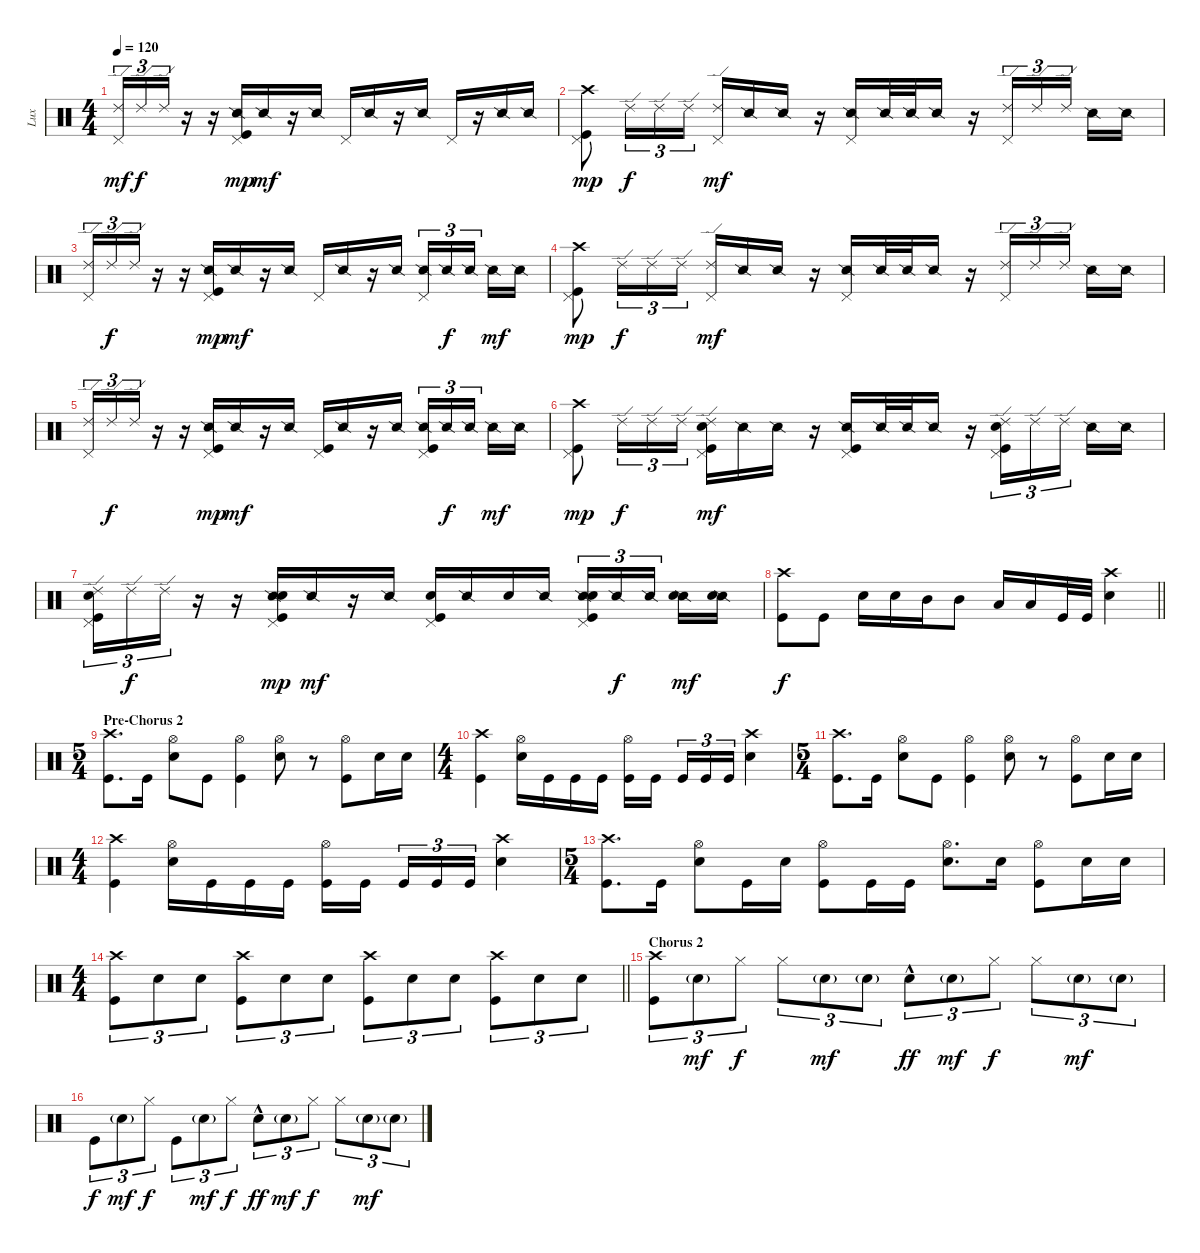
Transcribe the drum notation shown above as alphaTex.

\track ("Lux" "Lux") {instrument percussion bank 32}
\staff {score}
\articulation defaults
\ts (4 4)
\tempo 120
\clef neutral
\ks c
("Ride (edge) 2" "Pedal Hi-Hat (hit)").16{tu (3 2) dy mf} "Ride (edge) 2".16{tu (3 2) dy f} "Ride (edge) 2".16{tu (3 2)} r.16 r.16 ("Snare (side stick) 2" "Pedal Hi-Hat (hit)" "Kick (hit)").16{dy mp} "Snare (side stick) 2".16{dy mf} r.16 "Snare (side stick) 2".16 "Pedal Hi-Hat (hit)".16 "Snare (side stick) 2".16 r.16 "Snare (side stick) 2".16 "Pedal Hi-Hat (hit)".16 r.16 "Snare (side stick) 2".16 "Snare (side stick) 2".16 |
("Crash high (hit)" "Pedal Hi-Hat (hit)" "Kick (hit)").8{dy mp} "Ride (edge) 2".16{tu (3 2) dy f} "Ride (edge) 2".16{tu (3 2)} "Ride (edge) 2".16{tu (3 2)} ("Ride (edge) 2" "Pedal Hi-Hat (hit)").16{dy mf} "Snare (side stick) 2".16 "Snare (side stick) 2".16 r.16 ("Snare (side stick) 2" "Pedal Hi-Hat (hit)").16 "Snare (side stick) 2".32 "Snare (side stick) 2".32 "Snare (side stick) 2".16 r.16 ("Ride (edge) 2" "Pedal Hi-Hat (hit)").16{tu (3 2)} "Ride (edge) 2".16{tu (3 2)} "Ride (edge) 2".16{tu (3 2) beam splitsecondary} "Snare (side stick) 2".16 "Snare (side stick) 2".16 |
("Ride (edge) 2" "Pedal Hi-Hat (hit)").16{tu (3 2)} "Ride (edge) 2".16{tu (3 2) dy f} "Ride (edge) 2".16{tu (3 2)} r.16 r.16 ("Snare (side stick) 2" "Pedal Hi-Hat (hit)" "Kick (hit)").16{dy mp} "Snare (side stick) 2".16{dy mf} r.16 "Snare (side stick) 2".16 "Pedal Hi-Hat (hit)".16 "Snare (side stick) 2".16 r.16 "Snare (side stick) 2".16 ("Snare (side stick) 2" "Pedal Hi-Hat (hit)").16{tu (3 2)} "Snare (side stick) 2".16{tu (3 2) dy f} "Snare (side stick) 2".16{tu (3 2) beam splitsecondary} "Snare (side stick) 2".16{dy mf} "Snare (side stick) 2".16 |
("Crash high (hit)" "Pedal Hi-Hat (hit)" "Kick (hit)").8{dy mp} "Ride (edge) 2".16{tu (3 2) dy f} "Ride (edge) 2".16{tu (3 2)} "Ride (edge) 2".16{tu (3 2)} ("Ride (edge) 2" "Pedal Hi-Hat (hit)").16{dy mf} "Snare (side stick) 2".16 "Snare (side stick) 2".16 r.16 ("Snare (side stick) 2" "Pedal Hi-Hat (hit)").16 "Snare (side stick) 2".32 "Snare (side stick) 2".32 "Snare (side stick) 2".16 r.16 ("Ride (edge) 2" "Pedal Hi-Hat (hit)").16{tu (3 2)} "Ride (edge) 2".16{tu (3 2)} "Ride (edge) 2".16{tu (3 2) beam splitsecondary} "Snare (side stick) 2".16 "Snare (side stick) 2".16 |
("Ride (edge) 2" "Pedal Hi-Hat (hit)").16{tu (3 2)} "Ride (edge) 2".16{tu (3 2) dy f} "Ride (edge) 2".16{tu (3 2)} r.16 r.16 ("Snare (side stick) 2" "Pedal Hi-Hat (hit)" "Kick (hit)").16{dy mp} "Snare (side stick) 2".16{dy mf} r.16 "Snare (side stick) 2".16 ("Kick (hit)" "Pedal Hi-Hat (hit)").16 "Snare (side stick) 2".16 r.16 "Snare (side stick) 2".16 ("Snare (side stick) 2" "Kick (hit)" "Pedal Hi-Hat (hit)").16{tu (3 2)} "Snare (side stick) 2".16{tu (3 2) dy f} "Snare (side stick) 2".16{tu (3 2) beam splitsecondary} "Snare (side stick) 2".16{dy mf} "Snare (side stick) 2".16 |
("Crash high (hit)" "Pedal Hi-Hat (hit)" "Kick (hit)").8{dy mp} "Ride (edge) 2".16{tu (3 2) dy f} "Ride (edge) 2".16{tu (3 2)} "Ride (edge) 2".16{tu (3 2)} ("Ride (edge) 2" "Snare (hit) 2" "Kick (hit)" "Pedal Hi-Hat (hit)").16{dy mf} "Snare (side stick) 2".16 "Snare (side stick) 2".16 r.16 ("Snare (side stick) 2" "Kick (hit)" "Pedal Hi-Hat (hit)").16 "Snare (side stick) 2".32 "Snare (side stick) 2".32 "Snare (side stick) 2".16 r.16 ("Ride (edge) 2" "Snare (hit) 2" "Kick (hit)" "Pedal Hi-Hat (hit)").16{tu (3 2)} "Ride (edge) 2".16{tu (3 2)} "Ride (edge) 2".16{tu (3 2) beam splitsecondary} "Snare (side stick) 2".16 "Snare (side stick) 2".16 |
("Ride (edge) 2" "Snare (hit) 2" "Kick (hit)" "Pedal Hi-Hat (hit)").16{tu (3 2)} "Ride (edge) 2".16{tu (3 2) dy f} "Ride (edge) 2".16{tu (3 2)} r.16 r.16 ("Snare (side stick) 2" "Snare (hit) 2" "Pedal Hi-Hat (hit)" "Kick (hit)").16{dy mp} "Snare (side stick) 2".16{dy mf} r.16 "Snare (side stick) 2".16 ("Snare (hit) 2" "Kick (hit)" "Pedal Hi-Hat (hit)").16 "Snare (side stick) 2".16 "Snare (hit) 2".16 "Snare (side stick) 2".16 ("Snare (side stick) 2" "Snare (hit) 2" "Kick (hit)" "Pedal Hi-Hat (hit)").16{tu (3 2)} "Snare (side stick) 2".16{tu (3 2) dy f} "Snare (side stick) 2".16{tu (3 2) beam splitsecondary} ("Snare (side stick) 2" "Snare (hit) 2").16{dy mf} ("Snare (side stick) 2" "Snare (hit) 2").16 |
\barLineRight lightlight
("Crash high (hit)" "Kick (hit)").8{dy f} "Kick (hit)".8 "Snare (hit) 2".16 "Snare (hit) 2".16 "Mid Tom (hit)".16 "Mid Tom (hit)".8 "Low Tom (hit)".16 "Low Tom (hit)".16 "Kick (hit)".32 "Kick (hit)".32 ("Crash high (hit)" "Snare (hit) 2").4 |
\ts (5 4)
\section ("" "Pre-Chorus 2")
("Crash high (hit)" "Kick (hit)").8{d} "Kick (hit)".16 ("Hi-Hat (open)" "Snare (hit) 2").8 "Kick (hit)".8 ("Hi-Hat (open)" "Kick (hit)").4 ("Hi-Hat (open)" "Snare (hit) 2").8 r.8 ("Hi-Hat (open)" "Kick (hit)").8 "Snare (hit) 2".16 "Snare (hit) 2".16 |
\ts (4 4)
("Crash high (hit)" "Kick (hit)").4 ("Hi-Hat (open)" "Snare (hit) 2").16 "Kick (hit)".16 "Kick (hit)".16 "Kick (hit)".16 ("Hi-Hat (open)" "Kick (hit)").16 "Kick (hit)".16{beam splitsecondary} "Kick (hit)".16{tu (3 2)} "Kick (hit)".16{tu (3 2)} "Kick (hit)".16{tu (3 2)} ("Crash high (hit)" "Snare (hit) 2").4 |
\ts (5 4)
("Crash high (hit)" "Kick (hit)").8{d} "Kick (hit)".16 ("Hi-Hat (open)" "Snare (hit) 2").8 "Kick (hit)".8 ("Hi-Hat (open)" "Kick (hit)").4 ("Hi-Hat (open)" "Snare (hit) 2").8 r.8 ("Hi-Hat (open)" "Kick (hit)").8 "Snare (hit) 2".16 "Snare (hit) 2".16 |
\ts (4 4)
("Crash high (hit)" "Kick (hit)").4 ("Hi-Hat (open)" "Snare (hit) 2").16 "Kick (hit)".16 "Kick (hit)".16 "Kick (hit)".16 ("Hi-Hat (open)" "Kick (hit)").16 "Kick (hit)".16{beam splitsecondary} "Kick (hit)".16{tu (3 2)} "Kick (hit)".16{tu (3 2)} "Kick (hit)".16{tu (3 2)} ("Crash high (hit)" "Snare (hit) 2").4 |
\ts (5 4)
("Crash high (hit)" "Kick (hit)").8{d} "Kick (hit)".16 ("Hi-Hat (open)" "Snare (hit) 2").8 "Kick (hit)".16 "Snare (hit) 2".16 ("Hi-Hat (open)" "Kick (hit)").8 "Kick (hit)".16 "Kick (hit)".16 ("Hi-Hat (open)" "Snare (hit) 2").8{d} "Snare (hit) 2".16 ("Hi-Hat (open)" "Kick (hit)").8 "Snare (hit) 2".16 "Snare (hit) 2".16 |
\ts (4 4)
\barLineRight lightlight
("Crash high (hit)" "Kick (hit)").8{tu (3 2)} "Snare (hit) 2".8{tu (3 2)} "Snare (hit) 2".8{tu (3 2)} ("Crash high (hit)" "Kick (hit)").8{tu (3 2)} "Snare (hit) 2".8{tu (3 2)} "Snare (hit) 2".8{tu (3 2)} ("Crash high (hit)" "Kick (hit)").8{tu (3 2)} "Snare (hit) 2".8{tu (3 2)} "Snare (hit) 2".8{tu (3 2)} ("Crash high (hit)" "Kick (hit)").8{tu (3 2)} "Snare (hit) 2".8{tu (3 2)} "Snare (hit) 2".8{tu (3 2)} |
\section ("" "Chorus 2")
("Crash high (hit)" "Kick (hit)").8{tu (3 2)} "Snare (hit) 2"{g}.8{tu (3 2) dy mf} "Hi-Hat (closed)".8{tu (3 2) dy f} "Hi-Hat (closed)".8{tu (3 2)} "Snare (hit) 2"{g}.8{tu (3 2) dy mf} "Snare (hit) 2"{g}.8{tu (3 2)} "Snare (hit) 2"{hac}.8{tu (3 2) dy ff} "Snare (hit) 2"{g}.8{tu (3 2) dy mf} "Hi-Hat (closed)".8{tu (3 2) dy f} "Hi-Hat (closed)".8{tu (3 2)} "Snare (hit) 2"{g}.8{tu (3 2) dy mf} "Snare (hit) 2"{g}.8{tu (3 2)} |
"Kick (hit)".8{tu (3 2) dy f} "Snare (hit) 2"{g}.8{tu (3 2) dy mf} "Hi-Hat (closed)".8{tu (3 2) dy f} "Kick (hit)".8{tu (3 2)} "Snare (hit) 2"{g}.8{tu (3 2) dy mf} "Hi-Hat (closed)".8{tu (3 2) dy f} "Snare (hit) 2"{hac}.8{tu (3 2) dy ff} "Snare (hit) 2"{g}.8{tu (3 2) dy mf} "Hi-Hat (closed)".8{tu (3 2) dy f} "Hi-Hat (closed)".8{tu (3 2)} "Snare (hit) 2"{g}.8{tu (3 2) dy mf} "Snare (hit) 2"{g}.8{tu (3 2)}
